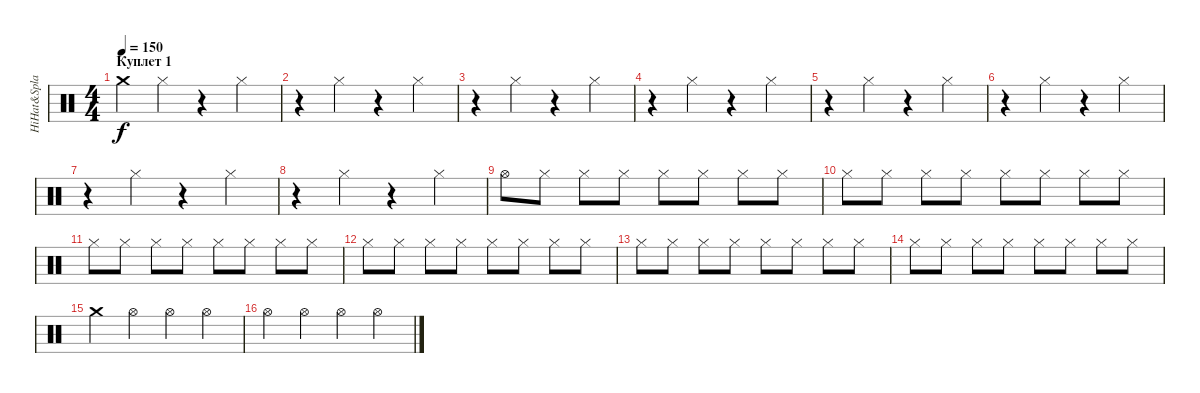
\track ("HiHat&Splash" "HiHat&Spla") {instrument percussion}
\staff {score}
\articulation defaults
\ts (4 4)
\section ("" "Куплет 1")
\tempo 150
\clef neutral
\ks c "Crash medium (hit)".4{dy f} "Hi-Hat (closed)".4
r.4 "Hi-Hat (closed)".4 |
r.4 "Hi-Hat (closed)".4 r.4 "Hi-Hat (closed)".4 |
r.4 "Hi-Hat (closed)".4 r.4 "Hi-Hat (closed)".4 |
r.4 "Hi-Hat (closed)".4 r.4 "Hi-Hat (closed)".4 |
r.4 "Hi-Hat (closed)".4 r.4 "Hi-Hat (closed)".4 |
r.4 "Hi-Hat (closed)".4 r.4 "Hi-Hat (closed)".4 |
r.4 "Hi-Hat (closed)".4 r.4 "Hi-Hat (closed)".4 |
r.4 "Hi-Hat (closed)".4 r.4 "Hi-Hat (closed)".4 |
"Hi-Hat (open)".8 "Hi-Hat (closed)".8 "Hi-Hat (closed)".8 "Hi-Hat (closed)".8 "Hi-Hat (closed)".8 "Hi-Hat (closed)".8 "Hi-Hat (closed)".8 "Hi-Hat (closed)".8 |
"Hi-Hat (closed)".8 "Hi-Hat (closed)".8 "Hi-Hat (closed)".8 "Hi-Hat (closed)".8 "Hi-Hat (closed)".8 "Hi-Hat (closed)".8 "Hi-Hat (closed)".8 "Hi-Hat (closed)".8 |
"Hi-Hat (closed)".8 "Hi-Hat (closed)".8 "Hi-Hat (closed)".8 "Hi-Hat (closed)".8 "Hi-Hat (closed)".8 "Hi-Hat (closed)".8 "Hi-Hat (closed)".8 "Hi-Hat (closed)".8 |
"Hi-Hat (closed)".8 "Hi-Hat (closed)".8 "Hi-Hat (closed)".8 "Hi-Hat (closed)".8 "Hi-Hat (closed)".8 "Hi-Hat (closed)".8 "Hi-Hat (closed)".8 "Hi-Hat (closed)".8 |
"Hi-Hat (closed)".8 "Hi-Hat (closed)".8 "Hi-Hat (closed)".8 "Hi-Hat (closed)".8 "Hi-Hat (closed)".8 "Hi-Hat (closed)".8 "Hi-Hat (closed)".8 "Hi-Hat (closed)".8 |
"Hi-Hat (closed)".8 "Hi-Hat (closed)".8 "Hi-Hat (closed)".8 "Hi-Hat (closed)".8 "Hi-Hat (closed)".8 "Hi-Hat (closed)".8 "Hi-Hat (closed)".8 "Hi-Hat (closed)".8 |
"Crash medium (hit)".4 "Hi-Hat (open)".4 "Hi-Hat (open)".4 "Hi-Hat (open)".4 |
"Hi-Hat (open)".4 "Hi-Hat (open)".4 "Hi-Hat (open)".4 "Hi-Hat (open)".4
